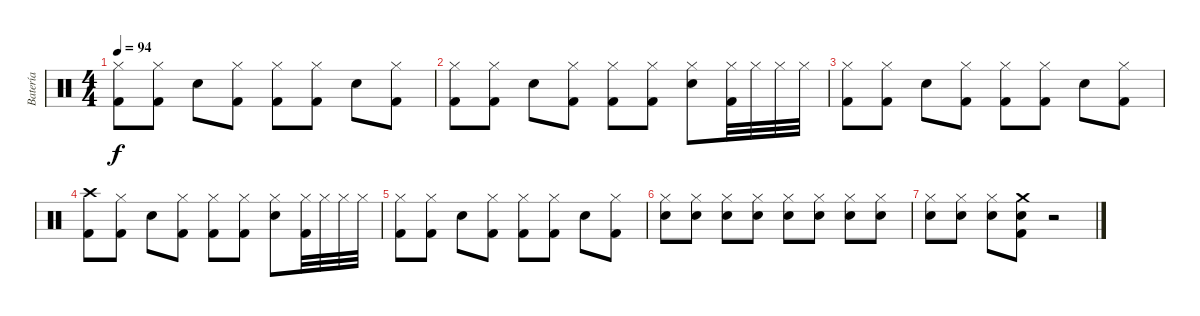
\track ("Batería" "Batería") {instrument percussion}
\staff {score}
\articulation defaults
\ts (4 4)
\tempo 94
\clef neutral
\ks c
("Hi-Hat (closed)" "Kick (hit) 2").8{dy f} ("Hi-Hat (closed)" "Kick (hit) 2").8 "Snare (hit) 2".8 ("Hi-Hat (closed)" "Kick (hit) 2").8 ("Hi-Hat (closed)" "Kick (hit) 2").8 ("Hi-Hat (closed)" "Kick (hit) 2").8 "Snare (hit) 2".8 ("Hi-Hat (closed)" "Kick (hit) 2").8 |
("Hi-Hat (closed)" "Kick (hit) 2").8 ("Hi-Hat (closed)" "Kick (hit) 2").8 "Snare (hit) 2".8 ("Hi-Hat (closed)" "Kick (hit) 2").8 ("Hi-Hat (closed)" "Kick (hit) 2").8 ("Hi-Hat (closed)" "Kick (hit) 2").8 ("Hi-Hat (closed)" "Snare (hit) 2").8 ("Hi-Hat (closed)" "Kick (hit) 2").32 "Hi-Hat (closed)".32 "Hi-Hat (closed)".32 "Hi-Hat (closed)".32 |
("Hi-Hat (closed)" "Kick (hit) 2").8 ("Hi-Hat (closed)" "Kick (hit) 2").8 "Snare (hit) 2".8 ("Hi-Hat (closed)" "Kick (hit) 2").8 ("Hi-Hat (closed)" "Kick (hit) 2").8 ("Hi-Hat (closed)" "Kick (hit) 2").8 "Snare (hit) 2".8 ("Hi-Hat (closed)" "Kick (hit) 2").8 |
("Crash high (hit)" "Kick (hit) 2").8 ("Hi-Hat (closed)" "Kick (hit) 2").8 "Snare (hit) 2".8 ("Hi-Hat (closed)" "Kick (hit) 2").8 ("Hi-Hat (closed)" "Kick (hit) 2").8 ("Hi-Hat (closed)" "Kick (hit) 2").8 ("Hi-Hat (closed)" "Snare (hit) 2").8 ("Hi-Hat (closed)" "Kick (hit) 2").32 "Hi-Hat (closed)".32 "Hi-Hat (closed)".32 "Hi-Hat (closed)".32 |
("Hi-Hat (closed)" "Kick (hit) 2").8 ("Hi-Hat (closed)" "Kick (hit) 2").8 "Snare (hit) 2".8 ("Hi-Hat (closed)" "Kick (hit) 2").8 ("Hi-Hat (closed)" "Kick (hit) 2").8 ("Hi-Hat (closed)" "Kick (hit) 2").8 "Snare (hit) 2".8 ("Hi-Hat (closed)" "Kick (hit) 2").8 |
("Snare (hit) 2" "Hi-Hat (closed)").8 ("Snare (hit) 2" "Hi-Hat (closed)").8 ("Snare (hit) 2" "Hi-Hat (closed)").8 ("Snare (hit) 2" "Hi-Hat (closed)").8 ("Snare (hit) 2" "Hi-Hat (closed)").8 ("Snare (hit) 2" "Hi-Hat (closed)").8 ("Snare (hit) 2" "Hi-Hat (closed)").8 ("Snare (hit) 2" "Hi-Hat (closed)").8 |
("Snare (hit) 2" "Hi-Hat (closed)").8 ("Snare (hit) 2" "Hi-Hat (closed)").8 ("Snare (hit) 2" "Hi-Hat (closed)").8 ("Kick (hit) 2" "Snare (hit) 2" "Crash medium (hit)").8 r.2
